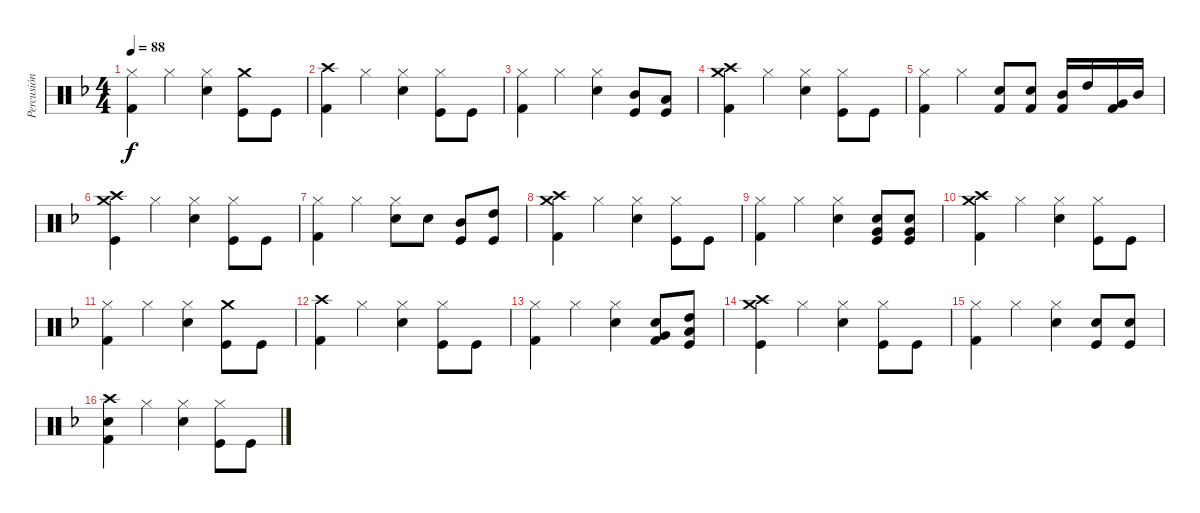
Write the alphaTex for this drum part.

\track ("Percusión" "Percusión") {instrument percussion}
\staff {score}
\articulation defaults
\ts (4 4)
\tempo 88
\clef neutral
\ks f
("Hi-Hat (closed)" "Kick (hit) 2").4{dy f} "Hi-Hat (closed)".4 ("Snare (hit) 2" "Hi-Hat (closed)").4 ("Kick (hit)" "Crash medium (hit)").8 "Kick (hit)".8 |
("Crash high (hit)" "Kick (hit) 2").4 "Hi-Hat (closed)".4 ("Snare (hit) 2" "Hi-Hat (closed)").4 ("Kick (hit)" "Hi-Hat (closed)").8 "Kick (hit)".8 |
("Hi-Hat (closed)" "Kick (hit) 2").4 "Hi-Hat (closed)".4 ("Snare (hit) 2" "Hi-Hat (closed)").4 ("Kick (hit)" "Mid Tom (hit)").8 ("Kick (hit)" "Low Tom (hit)").8 |
("Kick (hit) 2" "Crash high (hit)" "Crash medium (hit)").4 "Hi-Hat (closed)".4 ("Snare (hit) 2" "Hi-Hat (closed)").4 ("Kick (hit)" "Hi-Hat (closed)").8 "Kick (hit)".8 |
("Hi-Hat (closed)" "Kick (hit) 2").4 "Hi-Hat (closed)".4 ("Snare (hit) 2" "Kick (hit) 2").8 ("Snare (hit) 2" "Kick (hit) 2").8 ("Mid Tom (hit)" "Kick (hit) 2").16 "High Tom (hit)".16 ("Very Low Tom (hit)" "Kick (hit) 2").16 "Mid Tom (hit)".16 |
("Crash high (hit)" "Kick (hit)" "Crash medium (hit)").4 "Hi-Hat (closed)".4 ("Snare (hit) 2" "Hi-Hat (closed)").4 ("Kick (hit)" "Hi-Hat (closed)").8 "Kick (hit)".8 |
("Hi-Hat (closed)" "Kick (hit) 2").4 "Hi-Hat (closed)".4 ("Snare (hit) 2" "Hi-Hat (closed)").8 "Snare (hit) 2".8 ("Kick (hit)" "Mid Tom (hit)").8 ("Kick (hit)" "High Tom (hit)").8 |
("Crash high (hit)" "Crash medium (hit)" "Kick (hit) 2").4 "Hi-Hat (closed)".4 ("Snare (hit) 2" "Hi-Hat (closed)").4 ("Kick (hit)" "Hi-Hat (closed)").8 "Kick (hit)".8 |
("Hi-Hat (closed)" "Kick (hit) 2").4 "Hi-Hat (closed)".4 ("Snare (hit) 2" "Hi-Hat (closed)").4 ("Kick (hit)" "Very Low Tom (hit)" "Snare (hit) 2").8 ("Kick (hit)" "Snare (hit) 2" "Very Low Tom (hit)").8 |
("Crash high (hit)" "Crash medium (hit)" "Kick (hit) 2").4 "Hi-Hat (closed)".4 ("Snare (hit) 2" "Hi-Hat (closed)").4 ("Kick (hit)" "Hi-Hat (closed)").8 "Kick (hit)".8 |
("Hi-Hat (closed)" "Kick (hit) 2").4 "Hi-Hat (closed)".4 ("Snare (hit) 2" "Hi-Hat (closed)").4 ("Kick (hit)" "Crash medium (hit)").8 "Kick (hit)".8 |
("Kick (hit) 2" "Crash high (hit)").4 "Hi-Hat (closed)".4 ("Snare (hit) 2" "Hi-Hat (closed)").4 ("Kick (hit)" "Hi-Hat (closed)").8 "Kick (hit)".8 |
("Hi-Hat (closed)" "Kick (hit) 2").4 "Hi-Hat (closed)".4 ("Snare (hit) 2" "Hi-Hat (closed)").4 ("Kick (hit) 2" "Very Low Tom (hit)" "Snare (hit) 2").8 ("Kick (hit)" "High Tom (hit)" "Low Tom (hit)").8 |
("Crash high (hit)" "Kick (hit)" "Crash medium (hit)").4 "Hi-Hat (closed)".4 ("Snare (hit) 2" "Hi-Hat (closed)").4 ("Kick (hit)" "Hi-Hat (closed)").8 "Kick (hit)".8 |
("Hi-Hat (closed)" "Kick (hit) 2").4 "Hi-Hat (closed)".4 ("Snare (hit) 2" "Hi-Hat (closed)").4 ("Kick (hit)" "Snare (hit) 2").8 ("Kick (hit)" "Snare (hit) 2").8 |
("Crash high (hit)" "Kick (hit) 2" "Snare (hit) 2").4 "Hi-Hat (closed)".4 ("Snare (hit) 2" "Hi-Hat (closed)").4 ("Kick (hit)" "Hi-Hat (closed)").8 "Kick (hit)".8
